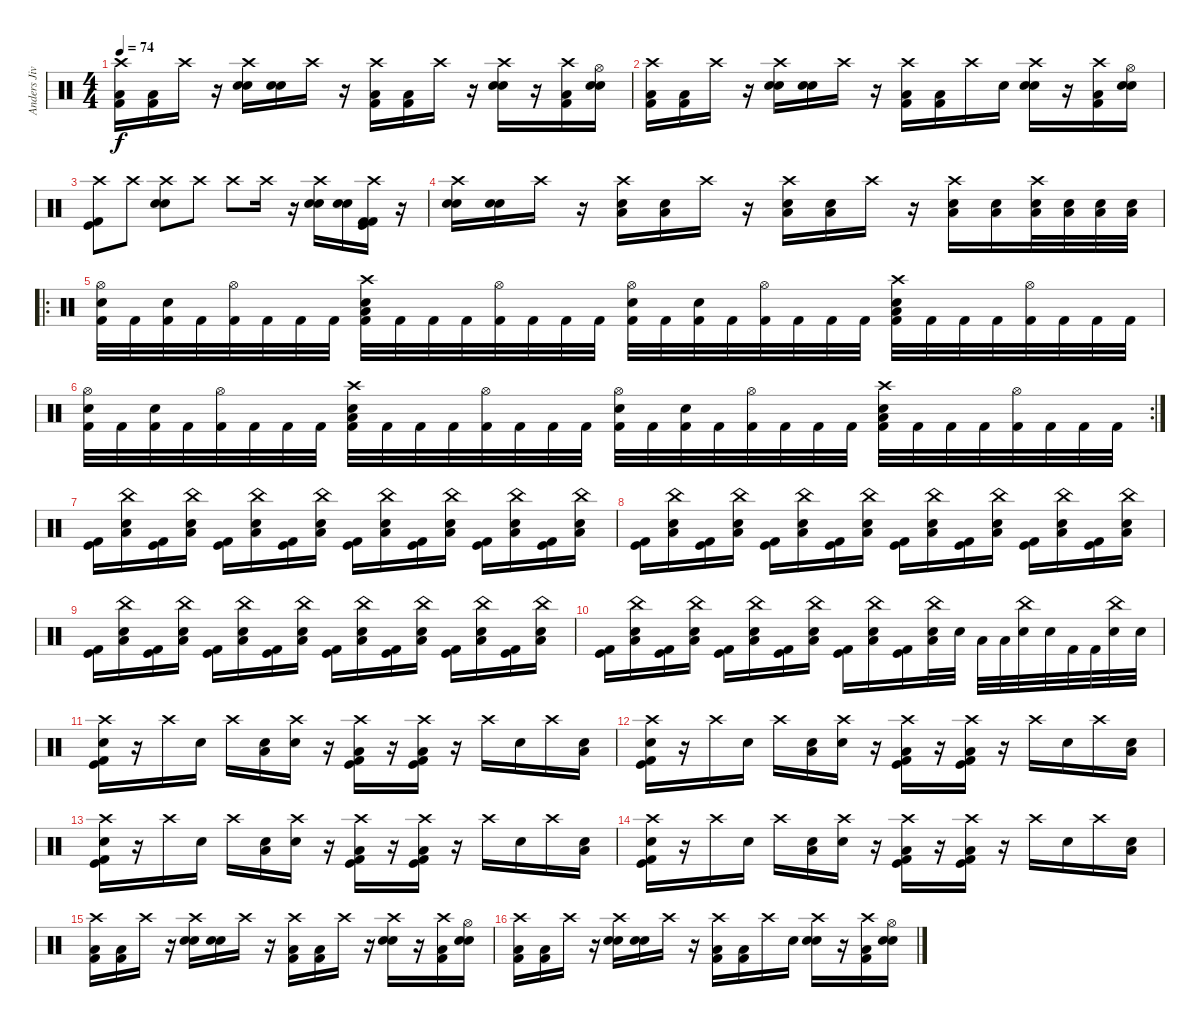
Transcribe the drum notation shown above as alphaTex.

\track ("Anders Jivarp" "Anders Jiv") {instrument percussion}
\staff {score}
\articulation defaults
\ts (4 4)
\tempo 74
\clef neutral
\ks c
("Crash high (hit)" "Low Tom (hit)" "Kick (hit) 2").16{dy f} ("Low Tom (hit)" "Kick (hit) 2").16 "Crash high (hit)".16 r.16 ("Crash high (hit)" "Snare (hit) 2" "Electric Snare (hit)").16 ("Snare (hit) 2" "Electric Snare (hit)").16 "Crash high (hit)".16 r.16 ("Crash high (hit)" "Low Tom (hit)" "Kick (hit) 2").16 ("Low Tom (hit)" "Kick (hit) 2").16 "Crash high (hit)".16 r.16 ("Crash high (hit)" "Snare (hit) 2" "Electric Snare (hit)").16 r.16 ("Crash high (hit)" "Low Tom (hit)" "Kick (hit) 2").16 ("Hi-Hat (open)" "Electric Snare (hit)" "Snare (hit) 2").16 |
("Crash high (hit)" "Low Tom (hit)" "Kick (hit) 2").16 ("Low Tom (hit)" "Kick (hit) 2").16 "Crash high (hit)".16 r.16 ("Crash high (hit)" "Snare (hit) 2" "Electric Snare (hit)").16 ("Snare (hit) 2" "Electric Snare (hit)").16 "Crash high (hit)".16 r.16 ("Crash high (hit)" "Low Tom (hit)" "Kick (hit) 2").16 ("Low Tom (hit)" "Kick (hit) 2").16 "Crash high (hit)".16 "Electric Snare (hit)".16 ("Crash high (hit)" "Snare (hit) 2" "Electric Snare (hit)").16 r.16 ("Crash high (hit)" "Low Tom (hit)" "Kick (hit) 2").16 ("Hi-Hat (open)" "Electric Snare (hit)" "Snare (hit) 2").16 |
("Crash high (hit)" "Kick (hit)" "Kick (hit) 2").8 "Crash high (hit)".8 ("Crash high (hit)" "Snare (hit) 2" "Electric Snare (hit)").8 "Crash high (hit)".8 "Crash high (hit)".8 "Crash high (hit)".16 r.16 ("Crash high (hit)" "Electric Snare (hit)" "Snare (hit) 2").16 ("Electric Snare (hit)" "Snare (hit) 2").16 ("Crash high (hit)" "Kick (hit)" "Kick (hit) 2" "Kick (hit) 2").16 r.16 |
("Crash high (hit)" "Snare (hit) 2" "Electric Snare (hit)").16 ("Snare (hit) 2" "Electric Snare (hit)").16 "Crash high (hit)".16 r.16 ("Crash high (hit)" "Electric Snare (hit)" "Low Tom (hit)").16 ("Electric Snare (hit)" "Low Tom (hit)").16 "Crash high (hit)".16 r.16 ("Crash high (hit)" "Electric Snare (hit)" "Low Tom (hit)").16 ("Electric Snare (hit)" "Low Tom (hit)").16 "Crash high (hit)".16 r.16 ("Crash high (hit)" "Electric Snare (hit)" "Low Tom (hit)").16 ("Electric Snare (hit)" "Low Tom (hit)").16 ("Crash high (hit)" "Electric Snare (hit)" "Low Tom (hit)").32 ("Electric Snare (hit)" "Low Tom (hit)").32 ("Electric Snare (hit)" "Low Tom (hit)").32 ("Electric Snare (hit)" "Low Tom (hit)").32 |
\ro
("Hi-Hat (open)" "Snare (hit) 2" "Kick (hit) 2").32 "Kick (hit) 2".32 ("Snare (hit) 2" "Kick (hit) 2").32 "Kick (hit) 2".32 ("Hi-Hat (open)" "Kick (hit) 2").32 "Kick (hit) 2".32 "Kick (hit) 2".32 "Kick (hit) 2".32 ("Crash high (hit)" "Electric Snare (hit)" "Low Tom (hit)" "Kick (hit) 2").32 "Kick (hit) 2".32 "Kick (hit) 2".32 "Kick (hit) 2".32 ("Hi-Hat (open)" "Kick (hit) 2").32 "Kick (hit) 2".32 "Kick (hit) 2".32 "Kick (hit) 2".32 ("Hi-Hat (open)" "Snare (hit) 2" "Kick (hit) 2").32 "Kick (hit) 2".32 ("Snare (hit) 2" "Kick (hit) 2").32 "Kick (hit) 2".32 ("Hi-Hat (open)" "Kick (hit) 2").32 "Kick (hit) 2".32 "Kick (hit) 2".32 "Kick (hit) 2".32 ("Crash high (hit)" "Electric Snare (hit)" "Low Tom (hit)" "Kick (hit) 2").32 "Kick (hit) 2".32 "Kick (hit) 2".32 "Kick (hit) 2".32 ("Hi-Hat (open)" "Kick (hit) 2").32 "Kick (hit) 2".32 "Kick (hit) 2".32 "Kick (hit) 2".32 |
\rc 2
("Hi-Hat (open)" "Snare (hit) 2" "Kick (hit) 2").32 "Kick (hit) 2".32 ("Snare (hit) 2" "Kick (hit) 2").32 "Kick (hit) 2".32 ("Hi-Hat (open)" "Kick (hit) 2").32 "Kick (hit) 2".32 "Kick (hit) 2".32 "Kick (hit) 2".32 ("Crash high (hit)" "Electric Snare (hit)" "Low Tom (hit)" "Kick (hit) 2").32 "Kick (hit) 2".32 "Kick (hit) 2".32 "Kick (hit) 2".32 ("Hi-Hat (open)" "Kick (hit) 2").32 "Kick (hit) 2".32 "Kick (hit) 2".32 "Kick (hit) 2".32 ("Hi-Hat (open)" "Snare (hit) 2" "Kick (hit) 2").32 "Kick (hit) 2".32 ("Snare (hit) 2" "Kick (hit) 2").32 "Kick (hit) 2".32 ("Hi-Hat (open)" "Kick (hit) 2").32 "Kick (hit) 2".32 "Kick (hit) 2".32 "Kick (hit) 2".32 ("Crash high (hit)" "Electric Snare (hit)" "Low Tom (hit)" "Kick (hit) 2").32 "Kick (hit) 2".32 "Kick (hit) 2".32 "Kick (hit) 2".32 ("Hi-Hat (open)" "Kick (hit) 2").32 "Kick (hit) 2".32 "Kick (hit) 2".32 "Kick (hit) 2".32 |
("Kick (hit)" "Kick (hit) 2").16 ("Low Tom (hit)" "China (hit)" "Electric Snare (hit)").16 ("Kick (hit)" "Kick (hit) 2").16 ("Low Tom (hit)" "China (hit)" "Electric Snare (hit)").16 ("Kick (hit)" "Kick (hit) 2").16 ("Low Tom (hit)" "China (hit)" "Electric Snare (hit)").16 ("Kick (hit)" "Kick (hit) 2").16 ("Low Tom (hit)" "China (hit)" "Electric Snare (hit)").16 ("Kick (hit)" "Kick (hit) 2").16 ("Low Tom (hit)" "China (hit)" "Electric Snare (hit)").16 ("Kick (hit)" "Kick (hit) 2").16 ("Low Tom (hit)" "China (hit)" "Electric Snare (hit)").16 ("Kick (hit)" "Kick (hit) 2").16 ("Low Tom (hit)" "China (hit)" "Electric Snare (hit)").16 ("Kick (hit)" "Kick (hit) 2").16 ("Low Tom (hit)" "China (hit)" "Electric Snare (hit)").16 |
("Kick (hit)" "Kick (hit) 2").16 ("Low Tom (hit)" "China (hit)" "Electric Snare (hit)").16 ("Kick (hit)" "Kick (hit) 2").16 ("Low Tom (hit)" "China (hit)" "Electric Snare (hit)").16 ("Kick (hit)" "Kick (hit) 2").16 ("Low Tom (hit)" "China (hit)" "Electric Snare (hit)").16 ("Kick (hit)" "Kick (hit) 2").16 ("Low Tom (hit)" "China (hit)" "Electric Snare (hit)").16 ("Kick (hit)" "Kick (hit) 2").16 ("Low Tom (hit)" "China (hit)" "Electric Snare (hit)").16 ("Kick (hit)" "Kick (hit) 2").16 ("Low Tom (hit)" "China (hit)" "Electric Snare (hit)").16 ("Kick (hit)" "Kick (hit) 2").16 ("Low Tom (hit)" "China (hit)" "Electric Snare (hit)").16 ("Kick (hit)" "Kick (hit) 2").16 ("Low Tom (hit)" "China (hit)" "Electric Snare (hit)").16 |
("Kick (hit)" "Kick (hit) 2").16 ("Low Tom (hit)" "China (hit)" "Electric Snare (hit)").16 ("Kick (hit)" "Kick (hit) 2").16 ("Low Tom (hit)" "China (hit)" "Electric Snare (hit)").16 ("Kick (hit)" "Kick (hit) 2").16 ("Low Tom (hit)" "China (hit)" "Electric Snare (hit)").16 ("Kick (hit)" "Kick (hit) 2").16 ("Low Tom (hit)" "China (hit)" "Electric Snare (hit)").16 ("Kick (hit)" "Kick (hit) 2").16 ("Low Tom (hit)" "China (hit)" "Electric Snare (hit)").16 ("Kick (hit)" "Kick (hit) 2").16 ("Low Tom (hit)" "China (hit)" "Electric Snare (hit)").16 ("Kick (hit)" "Kick (hit) 2").16 ("Low Tom (hit)" "China (hit)" "Electric Snare (hit)").16 ("Kick (hit)" "Kick (hit) 2").16 ("Low Tom (hit)" "China (hit)" "Electric Snare (hit)").16 |
("Kick (hit)" "Kick (hit) 2").16 ("Low Tom (hit)" "China (hit)" "Electric Snare (hit)").16 ("Kick (hit)" "Kick (hit) 2").16 ("Low Tom (hit)" "China (hit)" "Electric Snare (hit)").16 ("Kick (hit)" "Kick (hit) 2").16 ("Low Tom (hit)" "China (hit)" "Electric Snare (hit)").16 ("Kick (hit)" "Kick (hit) 2").16 ("Low Tom (hit)" "China (hit)" "Electric Snare (hit)").16 ("Kick (hit)" "Kick (hit) 2").16 ("Low Tom (hit)" "China (hit)" "Electric Snare (hit)").16 ("Kick (hit)" "Kick (hit) 2").16 ("Low Tom (hit)" "China (hit)" "Electric Snare (hit)").32 "Electric Snare (hit)".32 "Low Tom (hit)".32 "Low Tom (hit)".32 ("China (hit)" "Snare (hit) 2").32 "Snare (hit) 2".32 "Kick (hit) 2".32 "Kick (hit) 2".32 ("China (hit)" "Electric Snare (hit)").32 "Electric Snare (hit)".32 |
("Crash high (hit)" "Snare (hit) 2" "Kick (hit) 2" "Kick (hit)").16 r.16 "Crash high (hit)".16 "Electric Snare (hit)".16 "Crash high (hit)".16 ("Low Tom (hit)" "Snare (hit) 2").16 ("Crash high (hit)" "Electric Snare (hit)").16 r.16 ("Crash high (hit)" "Kick (hit)" "Low Tom (hit)" "Kick (hit) 2").16 r.16 ("Crash high (hit)" "Kick (hit)" "Low Tom (hit)" "Kick (hit) 2").16 r.16 "Crash high (hit)".16 "Electric Snare (hit)".16 "Crash high (hit)".16 ("Low Tom (hit)" "Snare (hit) 2").16 |
("Crash high (hit)" "Snare (hit) 2" "Kick (hit) 2" "Kick (hit)").16 r.16 "Crash high (hit)".16 "Electric Snare (hit)".16 "Crash high (hit)".16 ("Low Tom (hit)" "Snare (hit) 2").16 ("Crash high (hit)" "Electric Snare (hit)").16 r.16 ("Crash high (hit)" "Kick (hit)" "Low Tom (hit)" "Kick (hit) 2").16 r.16 ("Crash high (hit)" "Kick (hit)" "Low Tom (hit)" "Kick (hit) 2").16 r.16 "Crash high (hit)".16 "Electric Snare (hit)".16 "Crash high (hit)".16 ("Low Tom (hit)" "Snare (hit) 2").16 |
("Crash high (hit)" "Snare (hit) 2" "Kick (hit) 2" "Kick (hit)").16 r.16 "Crash high (hit)".16 "Electric Snare (hit)".16 "Crash high (hit)".16 ("Low Tom (hit)" "Snare (hit) 2").16 ("Crash high (hit)" "Electric Snare (hit)").16 r.16 ("Crash high (hit)" "Kick (hit)" "Low Tom (hit)" "Kick (hit) 2").16 r.16 ("Crash high (hit)" "Kick (hit)" "Low Tom (hit)" "Kick (hit) 2").16 r.16 "Crash high (hit)".16 "Electric Snare (hit)".16 "Crash high (hit)".16 ("Low Tom (hit)" "Snare (hit) 2").16 |
("Crash high (hit)" "Snare (hit) 2" "Kick (hit) 2" "Kick (hit)").16 r.16 "Crash high (hit)".16 "Electric Snare (hit)".16 "Crash high (hit)".16 ("Low Tom (hit)" "Snare (hit) 2").16 ("Crash high (hit)" "Electric Snare (hit)").16 r.16 ("Crash high (hit)" "Kick (hit)" "Low Tom (hit)" "Kick (hit) 2").16 r.16 ("Crash high (hit)" "Kick (hit)" "Low Tom (hit)" "Kick (hit) 2").16 r.16 "Crash high (hit)".16 "Electric Snare (hit)".16 "Crash high (hit)".16 ("Low Tom (hit)" "Snare (hit) 2").16 |
("Crash high (hit)" "Low Tom (hit)" "Kick (hit) 2").16 ("Low Tom (hit)" "Kick (hit) 2").16 "Crash high (hit)".16 r.16 ("Crash high (hit)" "Snare (hit) 2" "Electric Snare (hit)").16 ("Snare (hit) 2" "Electric Snare (hit)").16 "Crash high (hit)".16 r.16 ("Crash high (hit)" "Low Tom (hit)" "Kick (hit) 2").16 ("Low Tom (hit)" "Kick (hit) 2").16 "Crash high (hit)".16 r.16 ("Crash high (hit)" "Snare (hit) 2" "Electric Snare (hit)").16 r.16 ("Crash high (hit)" "Low Tom (hit)" "Kick (hit) 2").16 ("Hi-Hat (open)" "Electric Snare (hit)" "Snare (hit) 2").16 |
("Crash high (hit)" "Low Tom (hit)" "Kick (hit) 2").16 ("Low Tom (hit)" "Kick (hit) 2").16 "Crash high (hit)".16 r.16 ("Crash high (hit)" "Snare (hit) 2" "Electric Snare (hit)").16 ("Snare (hit) 2" "Electric Snare (hit)").16 "Crash high (hit)".16 r.16 ("Crash high (hit)" "Low Tom (hit)" "Kick (hit) 2").16 ("Low Tom (hit)" "Kick (hit) 2").16 "Crash high (hit)".16 "Electric Snare (hit)".16 ("Crash high (hit)" "Snare (hit) 2" "Electric Snare (hit)").16 r.16 ("Crash high (hit)" "Low Tom (hit)" "Kick (hit) 2").16 ("Hi-Hat (open)" "Electric Snare (hit)" "Snare (hit) 2").16
